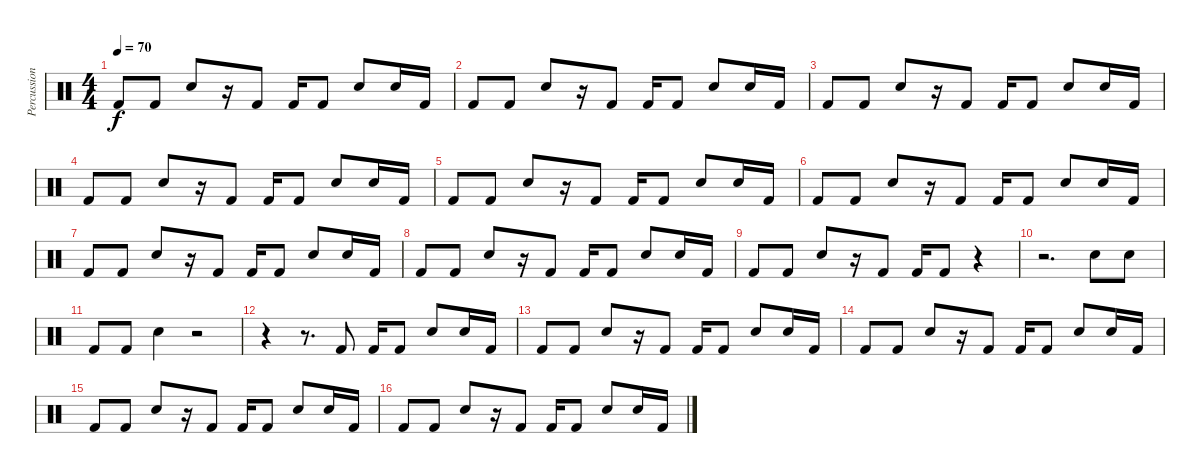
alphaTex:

\track ("Percussion 2" "Percussion") {instrument percussion}
\staff {score}
\articulation defaults
\ts (4 4)
\tempo 70
\clef neutral
\ks c "Kick (hit) 2".8{dy f} "Kick (hit) 2".8 "Electric Snare (hit)".8
r.16 "Kick (hit) 2".8 "Kick (hit) 2".16 "Kick (hit) 2".8 "Electric Snare (hit)".8 "Electric Snare (hit)".16 "Kick (hit) 2".16 |
"Kick (hit) 2".8 "Kick (hit) 2".8 "Electric Snare (hit)".8 r.16 "Kick (hit) 2".8 "Kick (hit) 2".16 "Kick (hit) 2".8 "Electric Snare (hit)".8 "Electric Snare (hit)".16 "Kick (hit) 2".16 |
"Kick (hit) 2".8 "Kick (hit) 2".8 "Electric Snare (hit)".8 r.16 "Kick (hit) 2".8 "Kick (hit) 2".16 "Kick (hit) 2".8 "Electric Snare (hit)".8 "Electric Snare (hit)".16 "Kick (hit) 2".16 |
"Kick (hit) 2".8 "Kick (hit) 2".8 "Electric Snare (hit)".8 r.16 "Kick (hit) 2".8 "Kick (hit) 2".16 "Kick (hit) 2".8 "Electric Snare (hit)".8 "Electric Snare (hit)".16 "Kick (hit) 2".16 |
"Kick (hit) 2".8 "Kick (hit) 2".8 "Electric Snare (hit)".8 r.16 "Kick (hit) 2".8 "Kick (hit) 2".16 "Kick (hit) 2".8 "Electric Snare (hit)".8 "Electric Snare (hit)".16 "Kick (hit) 2".16 |
"Kick (hit) 2".8 "Kick (hit) 2".8 "Electric Snare (hit)".8 r.16 "Kick (hit) 2".8 "Kick (hit) 2".16 "Kick (hit) 2".8 "Electric Snare (hit)".8 "Electric Snare (hit)".16 "Kick (hit) 2".16 |
"Kick (hit) 2".8 "Kick (hit) 2".8 "Electric Snare (hit)".8 r.16 "Kick (hit) 2".8 "Kick (hit) 2".16 "Kick (hit) 2".8 "Electric Snare (hit)".8 "Electric Snare (hit)".16 "Kick (hit) 2".16 |
"Kick (hit) 2".8 "Kick (hit) 2".8 "Electric Snare (hit)".8 r.16 "Kick (hit) 2".8 "Kick (hit) 2".16 "Kick (hit) 2".8 "Electric Snare (hit)".8 "Electric Snare (hit)".16 "Kick (hit) 2".16 |
"Kick (hit) 2".8 "Kick (hit) 2".8 "Electric Snare (hit)".8 r.16 "Kick (hit) 2".8 "Kick (hit) 2".16 "Kick (hit) 2".8 r.4 |
r.2{d} "Electric Snare (hit)".8 "Electric Snare (hit)".8 |
"Kick (hit) 2".8 "Kick (hit) 2".8 "Electric Snare (hit)".4 r.2 |
r.4 r.8{d} "Kick (hit) 2".8 "Kick (hit) 2".16 "Kick (hit) 2".8 "Electric Snare (hit)".8 "Electric Snare (hit)".16 "Kick (hit) 2".16 |
"Kick (hit) 2".8 "Kick (hit) 2".8 "Electric Snare (hit)".8 r.16 "Kick (hit) 2".8 "Kick (hit) 2".16 "Kick (hit) 2".8 "Electric Snare (hit)".8 "Electric Snare (hit)".16 "Kick (hit) 2".16 |
"Kick (hit) 2".8 "Kick (hit) 2".8 "Electric Snare (hit)".8 r.16 "Kick (hit) 2".8 "Kick (hit) 2".16 "Kick (hit) 2".8 "Electric Snare (hit)".8 "Electric Snare (hit)".16 "Kick (hit) 2".16 |
"Kick (hit) 2".8 "Kick (hit) 2".8 "Electric Snare (hit)".8 r.16 "Kick (hit) 2".8 "Kick (hit) 2".16 "Kick (hit) 2".8 "Electric Snare (hit)".8 "Electric Snare (hit)".16 "Kick (hit) 2".16 |
"Kick (hit) 2".8 "Kick (hit) 2".8 "Electric Snare (hit)".8 r.16 "Kick (hit) 2".8 "Kick (hit) 2".16 "Kick (hit) 2".8 "Electric Snare (hit)".8 "Electric Snare (hit)".16 "Kick (hit) 2".16
